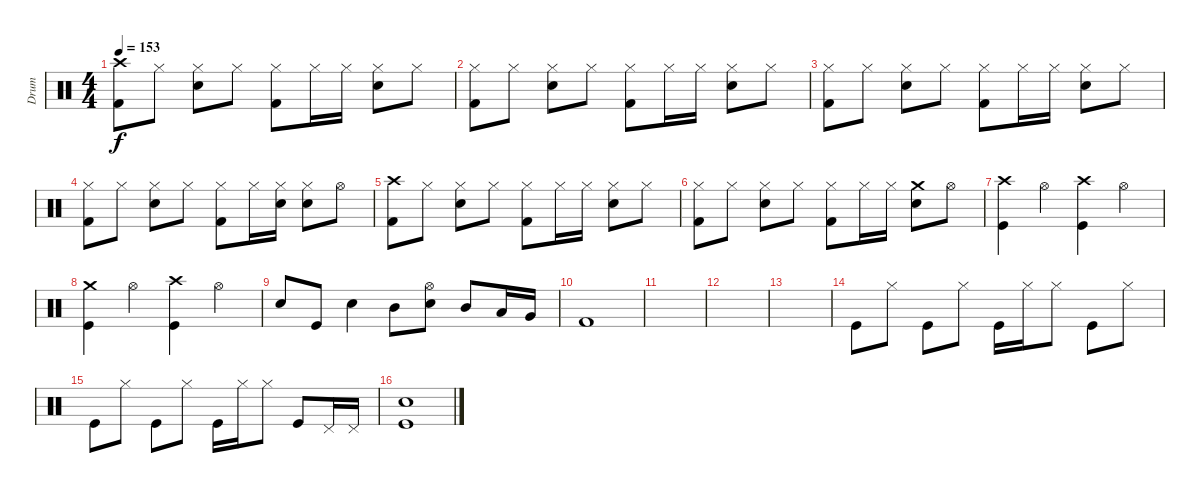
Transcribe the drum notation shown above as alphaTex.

\track ("Drum" "Drum") {instrument percussion}
\staff {score}
\articulation defaults
\ts (4 4)
\tempo 153
\clef neutral
\ks c
("Kick (hit) 2" "Crash high (hit)").8{dy f} "Hi-Hat (closed)".8 ("Hi-Hat (closed)" "Snare (hit) 2").8 "Hi-Hat (closed)".8 ("Hi-Hat (closed)" "Kick (hit) 2").8 "Hi-Hat (closed)".16 "Hi-Hat (closed)".16 ("Hi-Hat (closed)" "Snare (hit) 2").8 "Hi-Hat (closed)".8 |
("Hi-Hat (closed)" "Kick (hit) 2").8 "Hi-Hat (closed)".8 ("Hi-Hat (closed)" "Snare (hit) 2").8 "Hi-Hat (closed)".8 ("Hi-Hat (closed)" "Kick (hit) 2").8 "Hi-Hat (closed)".16 "Hi-Hat (closed)".16 ("Hi-Hat (closed)" "Snare (hit) 2").8 "Hi-Hat (closed)".8 |
("Hi-Hat (closed)" "Kick (hit) 2").8 "Hi-Hat (closed)".8 ("Hi-Hat (closed)" "Snare (hit) 2").8 "Hi-Hat (closed)".8 ("Hi-Hat (closed)" "Kick (hit) 2").8 "Hi-Hat (closed)".16 "Hi-Hat (closed)".16 ("Hi-Hat (closed)" "Snare (hit) 2").8 "Hi-Hat (closed)".8 |
("Hi-Hat (closed)" "Kick (hit) 2").8 "Hi-Hat (closed)".8 ("Hi-Hat (closed)" "Snare (hit) 2").8 "Hi-Hat (closed)".8 ("Hi-Hat (closed)" "Kick (hit) 2").8 "Hi-Hat (closed)".16 ("Hi-Hat (closed)" "Electric Snare (hit)").16 ("Hi-Hat (closed)" "Snare (hit) 2").8 "Hi-Hat (open)".8 |
("Kick (hit) 2" "Crash high (hit)").8 "Hi-Hat (closed)".8 ("Hi-Hat (closed)" "Snare (hit) 2").8 "Hi-Hat (closed)".8 ("Hi-Hat (closed)" "Kick (hit) 2").8 "Hi-Hat (closed)".16 "Hi-Hat (closed)".16 ("Hi-Hat (closed)" "Snare (hit) 2").8 "Hi-Hat (closed)".8 |
("Hi-Hat (closed)" "Kick (hit) 2").8 "Hi-Hat (closed)".8 ("Hi-Hat (closed)" "Snare (hit) 2").8 "Hi-Hat (closed)".8 ("Hi-Hat (closed)" "Kick (hit) 2").8 "Hi-Hat (closed)".16 "Hi-Hat (closed)".16 ("Snare (hit) 2" "Crash medium (hit)").8 "Hi-Hat (open)".8 |
("Kick (hit)" "Crash high (hit)").4 "Hi-Hat (open)".4 ("Kick (hit)" "Crash high (hit)").4 "Hi-Hat (open)".4 |
("Kick (hit)" "Crash medium (hit)").4 "Hi-Hat (open)".4 ("Kick (hit)" "Crash high (hit)").4 "Hi-Hat (open)".4 |
"Electric Snare (hit)".8 "Kick (hit)".8 "Electric Snare (hit)".4 "Mid Tom (hit)".8 ("Electric Snare (hit)" "Hi-Hat (open)").8 "Mid Tom (hit)".8 "Low Tom (hit)".16 "Very Low Tom (hit)".16 |
"Kick (hit) 2".1 |
|
|
|
"Kick (hit)".8 "Hi-Hat (closed)".8 "Kick (hit)".8 "Hi-Hat (closed)".8 "Kick (hit)".16 "Hi-Hat (closed)".16 "Hi-Hat (closed)".8 "Kick (hit)".8 "Hi-Hat (closed)".8 |
"Kick (hit)".8 "Hi-Hat (closed)".8 "Kick (hit)".8 "Hi-Hat (closed)".8 "Kick (hit)".16 "Hi-Hat (closed)".16 "Hi-Hat (closed)".8 "Kick (hit)".8 "Pedal Hi-Hat (hit)".16 "Pedal Hi-Hat (hit)".16 |
("Kick (hit)" "Electric Snare (hit)").1
